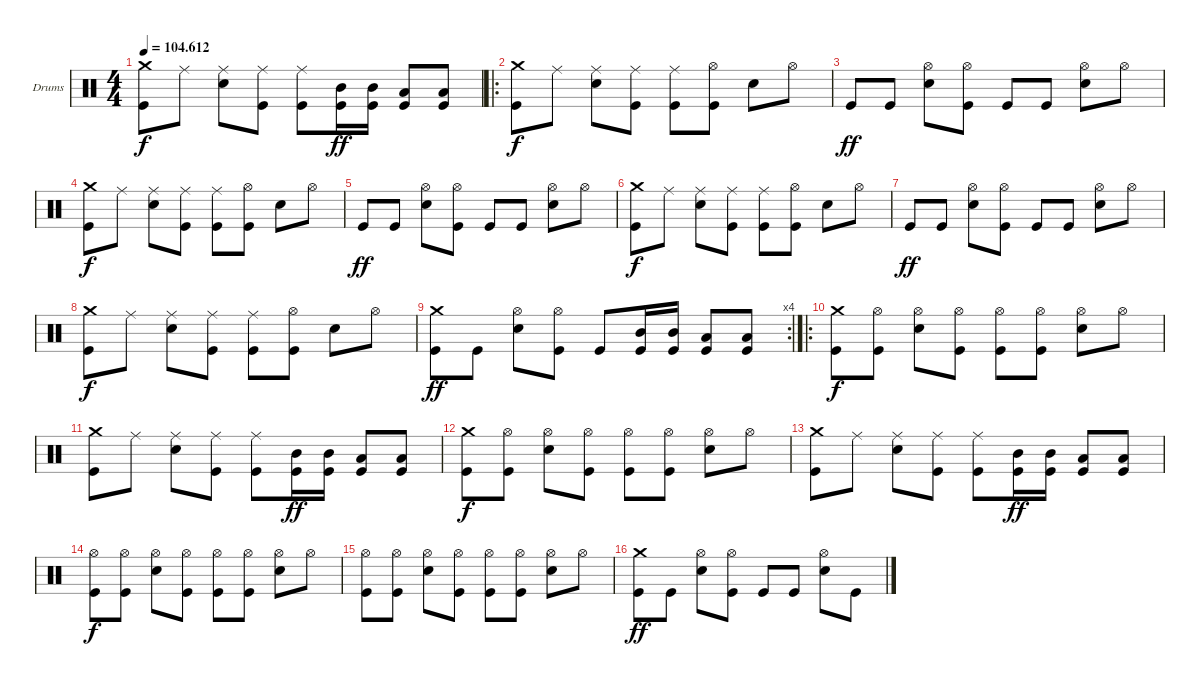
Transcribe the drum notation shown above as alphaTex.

\defaultSystemsLayout 4
\bracketExtendMode groupsimilarinstruments
\firstSystemTrackNameOrientation horizontal
\otherSystemsTrackNameOrientation horizontal
\track ("Drumkit" "Drums") {instrument percussion}
\staff {score}
\articulation defaults
\ts (4 4)
\tempo
104.612
\accidentals auto
\clef neutral
\ottava regular
\simile none
\ks c
("Kick (hit)" "Crash medium (hit)").8{dy f} "Ride (middle)".8 ("Snare (hit) 2" "Ride (middle)").8 ("Kick (hit)" "Ride (middle)").8 ("Kick (hit)" "Ride (middle)").8 ("Mid Tom (hit)" "Kick (hit)").16{dy ff} ("Mid Tom (hit)" "Kick (hit)").16 ("Low Tom (hit)" "Kick (hit)").8 ("Low Tom (hit)" "Kick (hit)").8 |
\ro
("Kick (hit)" "Crash medium (hit)").8{dy f} "Ride (middle)".8 ("Snare (hit) 2" "Ride (middle)").8 ("Kick (hit)" "Ride (middle)").8 ("Kick (hit)" "Ride (middle)").8 ("Kick (hit)" "Hi-Hat (open)").8 "Snare (hit) 2".8 "Hi-Hat (open)".8 |
"Kick (hit)".8{dy ff} "Kick (hit)".8 ("Snare (hit) 2" "Hi-Hat (open)").8 ("Kick (hit)" "Hi-Hat (open)").8 "Kick (hit)".8 "Kick (hit)".8 ("Snare (hit) 2" "Hi-Hat (open)").8 "Hi-Hat (open)".8 |
("Kick (hit)" "Crash medium (hit)").8{dy f} "Ride (middle)".8 ("Snare (hit) 2" "Ride (middle)").8 ("Kick (hit)" "Ride (middle)").8 ("Kick (hit)" "Ride (middle)").8 ("Kick (hit)" "Hi-Hat (open)").8 "Snare (hit) 2".8 "Hi-Hat (open)".8 |
"Kick (hit)".8{dy ff} "Kick (hit)".8 ("Snare (hit) 2" "Hi-Hat (open)").8 ("Kick (hit)" "Hi-Hat (open)").8 "Kick (hit)".8 "Kick (hit)".8 ("Snare (hit) 2" "Hi-Hat (open)").8 "Hi-Hat (open)".8 |
("Kick (hit)" "Crash medium (hit)").8{dy f} "Ride (middle)".8 ("Snare (hit) 2" "Ride (middle)").8 ("Kick (hit)" "Ride (middle)").8 ("Kick (hit)" "Ride (middle)").8 ("Kick (hit)" "Hi-Hat (open)").8 "Snare (hit) 2".8 "Hi-Hat (open)".8 |
"Kick (hit)".8{dy ff} "Kick (hit)".8 ("Snare (hit) 2" "Hi-Hat (open)").8 ("Kick (hit)" "Hi-Hat (open)").8 "Kick (hit)".8 "Kick (hit)".8 ("Snare (hit) 2" "Hi-Hat (open)").8 "Hi-Hat (open)".8 |
("Kick (hit)" "Crash medium (hit)").8{dy f} "Ride (middle)".8 ("Snare (hit) 2" "Ride (middle)").8 ("Kick (hit)" "Ride (middle)").8 ("Kick (hit)" "Ride (middle)").8 ("Kick (hit)" "Hi-Hat (open)").8 "Snare (hit) 2".8 "Hi-Hat (open)".8 |
\rc 4
("Kick (hit)" "Crash medium (hit)").8{dy ff} "Kick (hit)".8 ("Snare (hit) 2" "Hi-Hat (open)").8 ("Kick (hit)" "Hi-Hat (open)").8 "Kick (hit)".8 ("Mid Tom (hit)" "Kick (hit)").16 ("Mid Tom (hit)" "Kick (hit)").16 ("Low Tom (hit)" "Kick (hit)").8 ("Low Tom (hit)" "Kick (hit)").8 |
\ro
("Kick (hit)" "Crash medium (hit)").8{dy f} ("Kick (hit)" "Hi-Hat (open)").8 ("Snare (hit) 2" "Hi-Hat (open)").8 ("Kick (hit)" "Hi-Hat (open)").8 ("Kick (hit)" "Hi-Hat (open)").8 ("Kick (hit)" "Hi-Hat (open)").8 ("Snare (hit) 2" "Hi-Hat (open)").8 "Hi-Hat (open)".8 |
("Kick (hit)" "Crash medium (hit)").8 "Ride (middle)".8 ("Snare (hit) 2" "Ride (middle)").8 ("Kick (hit)" "Ride (middle)").8 ("Kick (hit)" "Ride (middle)").8 ("Mid Tom (hit)" "Kick (hit)").16{dy ff} ("Mid Tom (hit)" "Kick (hit)").16 ("Low Tom (hit)" "Kick (hit)").8 ("Low Tom (hit)" "Kick (hit)").8 |
("Kick (hit)" "Crash medium (hit)").8{dy f} ("Kick (hit)" "Hi-Hat (open)").8 ("Snare (hit) 2" "Hi-Hat (open)").8 ("Kick (hit)" "Hi-Hat (open)").8 ("Kick (hit)" "Hi-Hat (open)").8 ("Kick (hit)" "Hi-Hat (open)").8 ("Snare (hit) 2" "Hi-Hat (open)").8 "Hi-Hat (open)".8 |
("Kick (hit)" "Crash medium (hit)").8 "Ride (middle)".8 ("Snare (hit) 2" "Ride (middle)").8 ("Kick (hit)" "Ride (middle)").8 ("Kick (hit)" "Ride (middle)").8 ("Mid Tom (hit)" "Kick (hit)").16{dy ff} ("Mid Tom (hit)" "Kick (hit)").16 ("Low Tom (hit)" "Kick (hit)").8 ("Low Tom (hit)" "Kick (hit)").8 |
("Kick (hit)" "Hi-Hat (open)").8{dy f} ("Kick (hit)" "Hi-Hat (open)").8 ("Snare (hit) 2" "Hi-Hat (open)").8 ("Kick (hit)" "Hi-Hat (open)").8 ("Kick (hit)" "Hi-Hat (open)").8 ("Kick (hit)" "Hi-Hat (open)").8 ("Snare (hit) 2" "Hi-Hat (open)").8 "Hi-Hat (open)".8 |
("Kick (hit)" "Hi-Hat (open)").8 ("Kick (hit)" "Hi-Hat (open)").8 ("Snare (hit) 2" "Hi-Hat (open)").8 ("Kick (hit)" "Hi-Hat (open)").8 ("Kick (hit)" "Hi-Hat (open)").8 ("Kick (hit)" "Hi-Hat (open)").8 ("Snare (hit) 2" "Hi-Hat (open)").8 "Hi-Hat (open)".8 |
("Kick (hit)" "Crash medium (hit)").8{dy ff} "Kick (hit)".8 ("Snare (hit) 2" "Hi-Hat (open)").8 ("Kick (hit)" "Hi-Hat (open)").8 "Kick (hit)".8 "Kick (hit)".8 ("Snare (hit) 2" "Hi-Hat (open)").8 "Kick (hit)".8
